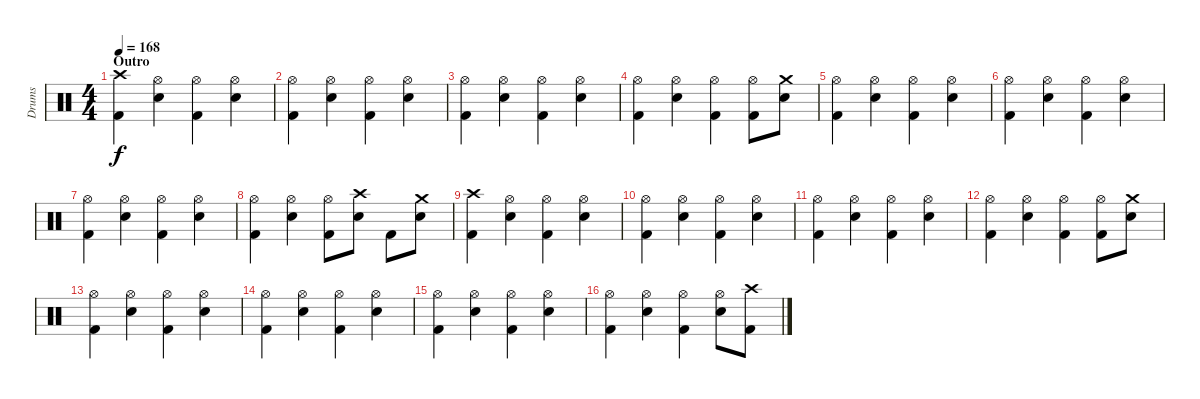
\track ("Drums" "Drums") {instrument percussion}
\staff {score}
\articulation defaults
\ts (4 4)
\section ("" "Outro")
\tempo 168
\clef neutral
\ks c
("Crash high (hit)" "Kick (hit) 2").4{dy f} ("Hi-Hat (open)" "Snare (hit) 2").4 ("Hi-Hat (open)" "Kick (hit) 2").4 ("Hi-Hat (open)" "Snare (hit) 2").4 |
("Hi-Hat (open)" "Kick (hit) 2").4 ("Hi-Hat (open)" "Snare (hit) 2").4 ("Hi-Hat (open)" "Kick (hit) 2").4 ("Hi-Hat (open)" "Snare (hit) 2").4 |
("Hi-Hat (open)" "Kick (hit) 2").4 ("Hi-Hat (open)" "Snare (hit) 2").4 ("Hi-Hat (open)" "Kick (hit) 2").4 ("Hi-Hat (open)" "Snare (hit) 2").4 |
("Hi-Hat (open)" "Kick (hit) 2").4 ("Hi-Hat (open)" "Snare (hit) 2").4 ("Hi-Hat (open)" "Kick (hit) 2").4 ("Hi-Hat (open)" "Kick (hit) 2").8 ("Crash medium (hit)" "Snare (hit) 2").8 |
("Hi-Hat (open)" "Kick (hit) 2").4 ("Hi-Hat (open)" "Snare (hit) 2").4 ("Hi-Hat (open)" "Kick (hit) 2").4 ("Hi-Hat (open)" "Snare (hit) 2").4 |
("Hi-Hat (open)" "Kick (hit) 2").4 ("Hi-Hat (open)" "Snare (hit) 2").4 ("Hi-Hat (open)" "Kick (hit) 2").4 ("Hi-Hat (open)" "Snare (hit) 2").4 |
("Hi-Hat (open)" "Kick (hit) 2").4 ("Hi-Hat (open)" "Snare (hit) 2").4 ("Hi-Hat (open)" "Kick (hit) 2").4 ("Hi-Hat (open)" "Snare (hit) 2").4 |
("Hi-Hat (open)" "Kick (hit) 2").4 ("Hi-Hat (open)" "Snare (hit) 2").4 ("Hi-Hat (open)" "Kick (hit) 2").8 ("Crash high (hit)" "Snare (hit) 2").8 "Kick (hit) 2".8 ("Crash medium (hit)" "Snare (hit) 2").8 |
("Crash high (hit)" "Kick (hit) 2").4 ("Hi-Hat (open)" "Snare (hit) 2").4 ("Hi-Hat (open)" "Kick (hit) 2").4 ("Hi-Hat (open)" "Snare (hit) 2").4 |
("Hi-Hat (open)" "Kick (hit) 2").4 ("Hi-Hat (open)" "Snare (hit) 2").4 ("Hi-Hat (open)" "Kick (hit) 2").4 ("Hi-Hat (open)" "Snare (hit) 2").4 |
("Hi-Hat (open)" "Kick (hit) 2").4 ("Hi-Hat (open)" "Snare (hit) 2").4 ("Hi-Hat (open)" "Kick (hit) 2").4 ("Hi-Hat (open)" "Snare (hit) 2").4 |
("Hi-Hat (open)" "Kick (hit) 2").4 ("Hi-Hat (open)" "Snare (hit) 2").4 ("Hi-Hat (open)" "Kick (hit) 2").4 ("Hi-Hat (open)" "Kick (hit) 2").8 ("Crash medium (hit)" "Snare (hit) 2").8 |
("Hi-Hat (open)" "Kick (hit) 2").4 ("Hi-Hat (open)" "Snare (hit) 2").4 ("Hi-Hat (open)" "Kick (hit) 2").4 ("Hi-Hat (open)" "Snare (hit) 2").4 |
("Hi-Hat (open)" "Kick (hit) 2").4 ("Hi-Hat (open)" "Snare (hit) 2").4 ("Hi-Hat (open)" "Kick (hit) 2").4 ("Hi-Hat (open)" "Snare (hit) 2").4 |
("Hi-Hat (open)" "Kick (hit) 2").4 ("Hi-Hat (open)" "Snare (hit) 2").4 ("Hi-Hat (open)" "Kick (hit) 2").4 ("Hi-Hat (open)" "Snare (hit) 2").4 |
("Hi-Hat (open)" "Kick (hit) 2").4 ("Hi-Hat (open)" "Snare (hit) 2").4 ("Hi-Hat (open)" "Kick (hit) 2").4 ("Hi-Hat (open)" "Snare (hit) 2").8 ("Crash high (hit)" "Kick (hit) 2").8
